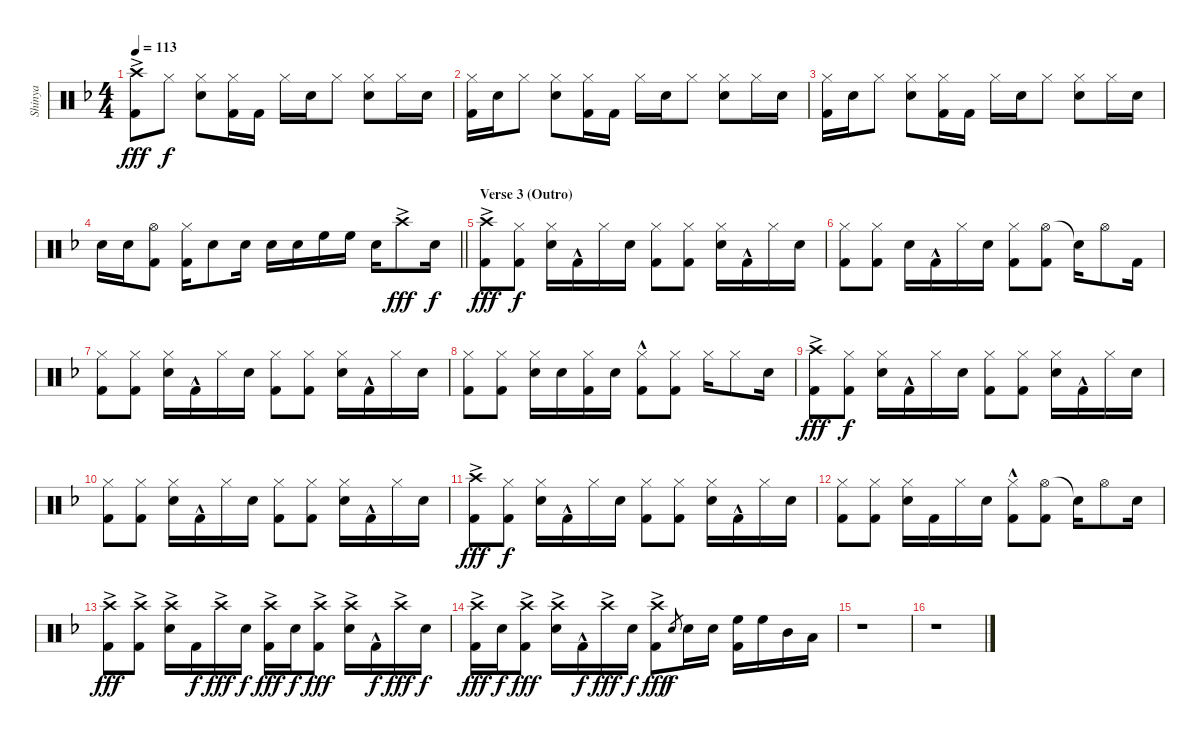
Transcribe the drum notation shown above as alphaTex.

\track ("Shinya" "Shinya") {instrument percussion}
\staff {score}
\articulation defaults
\ts (4 4)
\tempo 113
\clef neutral
\ks f
("Crash high (hit)"{ac} "Kick (hit) 2").8{dy fff} "Hi-Hat (closed)".8{dy f} ("Hi-Hat (closed)" "Snare (hit) 2").8 ("Hi-Hat (closed)" "Kick (hit) 2").16 "Kick (hit) 2".16 "Hi-Hat (closed)".16 "Snare (hit) 2".16 "Hi-Hat (closed)".8 ("Hi-Hat (closed)" "Snare (hit) 2").8 "Hi-Hat (closed)".16 "Snare (hit) 2".16 |
("Hi-Hat (closed)" "Kick (hit) 2").16 "Snare (hit) 2".16 "Hi-Hat (closed)".8 ("Hi-Hat (closed)" "Snare (hit) 2").8 ("Hi-Hat (closed)" "Kick (hit) 2").16 "Kick (hit) 2".16 "Hi-Hat (closed)".16 "Snare (hit) 2".16 "Hi-Hat (closed)".8 ("Hi-Hat (closed)" "Snare (hit) 2").8 "Hi-Hat (closed)".16 "Snare (hit) 2".16 |
("Hi-Hat (closed)" "Kick (hit) 2").16 "Snare (hit) 2".16 "Hi-Hat (closed)".8 ("Hi-Hat (closed)" "Snare (hit) 2").8 ("Hi-Hat (closed)" "Kick (hit) 2").16 "Kick (hit) 2".16 "Hi-Hat (closed)".16 "Snare (hit) 2".16 "Hi-Hat (closed)".8 ("Hi-Hat (closed)" "Snare (hit) 2").8 "Hi-Hat (closed)".16 "Snare (hit) 2".16 |
\barLineRight lightlight "Snare (hit) 2".16 "Snare (hit) 2".16
("Hi-Hat (open)" "Kick (hit) 2").8 ("Hi-Hat (closed)" "Kick (hit) 2").16 "Snare (hit) 2".8 "Snare (hit) 2".16 "Snare (hit) 2".16 "Snare (hit) 2".16 "High Floor Tom (hit)".16 "High Floor Tom (hit)".16 "Snare (hit) 2".16 "Crash high (hit)"{ac}.8{dy fff} "Snare (hit) 2".16{dy f} |
\section ("" "Verse 3 (Outro)")
("Crash high (hit)"{ac} "Kick (hit) 2").8{dy fff} ("Hi-Hat (closed)" "Kick (hit) 2").8{dy f} ("Hi-Hat (closed)" "Snare (hit) 2").16 "Kick (hit) 2"{hac}.16 "Hi-Hat (closed)".16 "Snare (hit) 2".16 ("Hi-Hat (closed)" "Kick (hit) 2").8 ("Hi-Hat (closed)" "Kick (hit) 2").8 ("Hi-Hat (closed)" "Snare (hit) 2").16 "Kick (hit) 2"{hac}.16 "Hi-Hat (closed)".16 "Snare (hit) 2".16 |
("Hi-Hat (closed)" "Kick (hit) 2").8 ("Hi-Hat (closed)" "Kick (hit) 2").8 "Snare (hit) 2".16 "Kick (hit) 2"{hac}.16 "Hi-Hat (closed)".16 "Snare (hit) 2".16 ("Hi-Hat (closed)" "Kick (hit) 2").8 ("Hi-Hat (open)" "Kick (hit) 2").8 "Snare (hit)"{t}.16 "Hi-Hat (open)".8 "Kick (hit) 2".16 |
("Hi-Hat (closed)" "Kick (hit) 2").8 ("Hi-Hat (closed)" "Kick (hit) 2").8 ("Hi-Hat (closed)" "Snare (hit) 2").16 "Kick (hit) 2"{hac}.16 "Hi-Hat (closed)".16 "Snare (hit) 2".16 ("Hi-Hat (closed)" "Kick (hit) 2").8 ("Hi-Hat (closed)" "Kick (hit) 2").8 ("Hi-Hat (closed)" "Snare (hit) 2").16 "Kick (hit) 2"{hac}.16 "Hi-Hat (closed)".16 "Snare (hit) 2".16 |
("Hi-Hat (closed)" "Kick (hit) 2").8 ("Hi-Hat (closed)" "Kick (hit) 2").8 ("Hi-Hat (closed)" "Snare (hit) 2").16 "Snare (hit) 2".16 ("Hi-Hat (closed)" "Kick (hit) 2").16 "Snare (hit) 2".16 ("Hi-Hat (closed)"{hac} "Kick (hit) 2").8 ("Hi-Hat (closed)" "Kick (hit) 2").8 "Hi-Hat (closed)".16 "Hi-Hat (closed)".8 "Snare (hit) 2".16 |
("Crash high (hit)"{ac} "Kick (hit) 2").8{dy fff} ("Hi-Hat (closed)" "Kick (hit) 2").8{dy f} ("Hi-Hat (closed)" "Snare (hit) 2").16 "Kick (hit) 2"{hac}.16 "Hi-Hat (closed)".16 "Snare (hit) 2".16 ("Hi-Hat (closed)" "Kick (hit) 2").8 ("Hi-Hat (closed)" "Kick (hit) 2").8 ("Hi-Hat (closed)" "Snare (hit) 2").16 "Kick (hit) 2"{hac}.16 "Hi-Hat (closed)".16 "Snare (hit) 2".16 |
("Hi-Hat (closed)" "Kick (hit) 2").8 ("Hi-Hat (closed)" "Kick (hit) 2").8 ("Hi-Hat (closed)" "Snare (hit) 2").16 "Kick (hit) 2"{hac}.16 "Hi-Hat (closed)".16 "Snare (hit) 2".16 ("Hi-Hat (closed)" "Kick (hit) 2").8 ("Hi-Hat (closed)" "Kick (hit) 2").8 ("Hi-Hat (closed)" "Snare (hit) 2").16 "Kick (hit) 2"{hac}.16 "Hi-Hat (closed)".16 "Snare (hit) 2".16 |
("Crash high (hit)"{ac} "Kick (hit) 2").8{dy fff} ("Hi-Hat (closed)" "Kick (hit) 2").8{dy f} ("Hi-Hat (closed)" "Snare (hit) 2").16 "Kick (hit) 2"{hac}.16 "Hi-Hat (closed)".16 "Snare (hit) 2".16 ("Hi-Hat (closed)" "Kick (hit) 2").8 ("Hi-Hat (closed)" "Kick (hit) 2").8 ("Hi-Hat (closed)" "Snare (hit) 2").16 "Kick (hit) 2"{hac}.16 "Hi-Hat (closed)".16 "Snare (hit) 2".16 |
("Hi-Hat (closed)" "Kick (hit) 2").8 ("Hi-Hat (closed)" "Kick (hit) 2").8 ("Hi-Hat (closed)" "Snare (hit) 2").16 "Kick (hit) 2".16 "Hi-Hat (closed)".16 "Snare (hit) 2".16 ("Hi-Hat (closed)"{hac} "Kick (hit) 2").8 ("Hi-Hat (open)" "Kick (hit) 2").8 "Snare (hit)"{t}.16 "Hi-Hat (open)".8 "Snare (hit) 2".16 |
("Crash high (hit)"{ac} "Kick (hit) 2").8{dy fff} ("Crash high (hit)"{ac} "Kick (hit) 2").8 ("Crash high (hit)"{ac} "Snare (hit) 2").16 "Kick (hit) 2".16{dy f} "Crash high (hit)"{ac}.16{dy fff} "Snare (hit) 2".16{dy f} ("Crash high (hit)"{ac} "Kick (hit) 2").16{dy fff} "Snare (hit) 2".16{dy f} ("Crash high (hit)"{ac} "Kick (hit) 2").8{dy fff} ("Crash high (hit)"{ac} "Snare (hit) 2").16 "Kick (hit) 2"{hac}.16{dy f} "Crash high (hit)"{ac}.16{dy fff} "Snare (hit) 2".16{dy f} |
("Crash high (hit)"{ac} "Kick (hit) 2").16{dy fff} "Snare (hit) 2".16{dy f} ("Crash high (hit)"{ac} "Kick (hit) 2").8{dy fff} ("Crash high (hit)"{ac} "Snare (hit) 2").16 "Kick (hit) 2"{hac}.16{dy f} "Crash high (hit)"{ac}.16{dy fff} "Snare (hit) 2".16{dy f} ("Crash high (hit)"{ac} "Kick (hit) 2").8{dy fff} "Snare (hit) 2".8{gr dy f} "Snare (hit) 2".16 "Snare (hit) 2".16 ("High Floor Tom (hit)" "Kick (hit) 2").16 "High Floor Tom (hit)".16 "Mid Tom (hit)".16 "Low Tom (hit)".16 |
r.1 |
r.1
